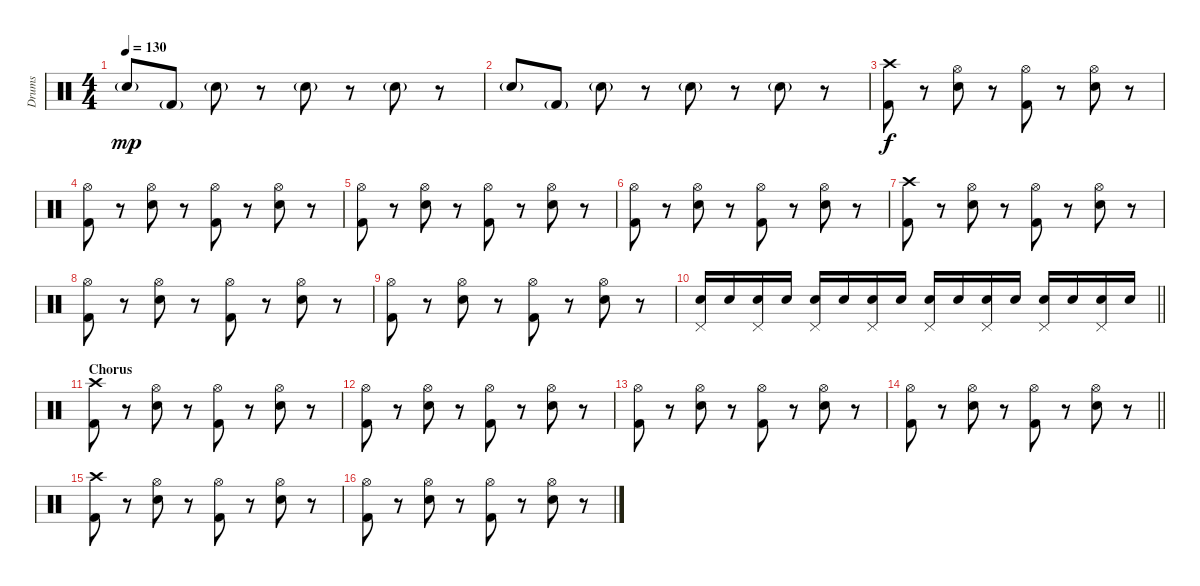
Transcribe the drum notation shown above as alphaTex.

\track ("Drums" "Drums") {instrument percussion}
\staff {score}
\articulation defaults
\ts (4 4)
\tempo 130
\clef neutral
\ks c "Snare (hit) 2"{g}.8{dy mp} "Kick (hit) 2"{g}.8 "Snare (hit) 2"{g}.8
r.8 "Snare (hit) 2"{g}.8 r.8 "Snare (hit) 2"{g}.8 r.8 |
"Snare (hit) 2"{g}.8 "Kick (hit) 2"{g}.8 "Snare (hit) 2"{g}.8 r.8 "Snare (hit) 2"{g}.8 r.8 "Snare (hit) 2"{g}.8 r.8 |
("Crash high (hit)" "Kick (hit) 2").8{dy f} r.8 ("Hi-Hat (open)" "Snare (hit) 2").8 r.8 ("Hi-Hat (open)" "Kick (hit) 2").8 r.8 ("Hi-Hat (open)" "Snare (hit) 2").8 r.8 |
("Hi-Hat (open)" "Kick (hit) 2").8 r.8 ("Hi-Hat (open)" "Snare (hit) 2").8 r.8 ("Hi-Hat (open)" "Kick (hit) 2").8 r.8 ("Hi-Hat (open)" "Snare (hit) 2").8 r.8 |
("Hi-Hat (open)" "Kick (hit) 2").8 r.8 ("Hi-Hat (open)" "Snare (hit) 2").8 r.8 ("Hi-Hat (open)" "Kick (hit) 2").8 r.8 ("Hi-Hat (open)" "Snare (hit) 2").8 r.8 |
("Hi-Hat (open)" "Kick (hit) 2").8 r.8 ("Hi-Hat (open)" "Snare (hit) 2").8 r.8 ("Hi-Hat (open)" "Kick (hit) 2").8 r.8 ("Hi-Hat (open)" "Snare (hit) 2").8 r.8 |
("Crash high (hit)" "Kick (hit) 2").8 r.8 ("Hi-Hat (open)" "Snare (hit) 2").8 r.8 ("Hi-Hat (open)" "Kick (hit) 2").8 r.8 ("Hi-Hat (open)" "Snare (hit) 2").8 r.8 |
("Hi-Hat (open)" "Kick (hit) 2").8 r.8 ("Hi-Hat (open)" "Snare (hit) 2").8 r.8 ("Hi-Hat (open)" "Kick (hit) 2").8 r.8 ("Hi-Hat (open)" "Snare (hit) 2").8 r.8 |
("Hi-Hat (open)" "Kick (hit) 2").8 r.8 ("Hi-Hat (open)" "Snare (hit) 2").8 r.8 ("Hi-Hat (open)" "Kick (hit) 2").8 r.8 ("Hi-Hat (open)" "Snare (hit) 2").8 r.8 |
\barLineRight lightlight
("Pedal Hi-Hat (hit)" "Snare (hit) 2").16 "Snare (hit) 2".16 ("Pedal Hi-Hat (hit)" "Snare (hit) 2").16 "Snare (hit) 2".16 ("Pedal Hi-Hat (hit)" "Snare (hit) 2").16 "Snare (hit) 2".16 ("Pedal Hi-Hat (hit)" "Snare (hit) 2").16 "Snare (hit) 2".16 ("Pedal Hi-Hat (hit)" "Snare (hit) 2").16 "Snare (hit) 2".16 ("Pedal Hi-Hat (hit)" "Snare (hit) 2").16 "Snare (hit) 2".16 ("Pedal Hi-Hat (hit)" "Snare (hit) 2").16 "Snare (hit) 2".16 ("Pedal Hi-Hat (hit)" "Snare (hit) 2").16 "Snare (hit) 2".16 |
\section ("" "Chorus")
("Crash high (hit)" "Kick (hit) 2").8 r.8 ("Hi-Hat (open)" "Snare (hit) 2").8 r.8 ("Hi-Hat (open)" "Kick (hit) 2").8 r.8 ("Hi-Hat (open)" "Snare (hit) 2").8 r.8 |
("Hi-Hat (open)" "Kick (hit) 2").8 r.8 ("Hi-Hat (open)" "Snare (hit) 2").8 r.8 ("Hi-Hat (open)" "Kick (hit) 2").8 r.8 ("Hi-Hat (open)" "Snare (hit) 2").8 r.8 |
("Hi-Hat (open)" "Kick (hit) 2").8 r.8 ("Hi-Hat (open)" "Snare (hit) 2").8 r.8 ("Hi-Hat (open)" "Kick (hit) 2").8 r.8 ("Hi-Hat (open)" "Snare (hit) 2").8 r.8 |
\barLineRight lightlight
("Hi-Hat (open)" "Kick (hit) 2").8 r.8 ("Hi-Hat (open)" "Snare (hit) 2").8 r.8 ("Hi-Hat (open)" "Kick (hit) 2").8 r.8 ("Hi-Hat (open)" "Snare (hit) 2").8 r.8 |
("Crash high (hit)" "Kick (hit) 2").8 r.8 ("Hi-Hat (open)" "Snare (hit) 2").8 r.8 ("Hi-Hat (open)" "Kick (hit) 2").8 r.8 ("Hi-Hat (open)" "Snare (hit) 2").8 r.8 |
("Hi-Hat (open)" "Kick (hit) 2").8 r.8 ("Hi-Hat (open)" "Snare (hit) 2").8 r.8 ("Hi-Hat (open)" "Kick (hit) 2").8 r.8 ("Hi-Hat (open)" "Snare (hit) 2").8 r.8
